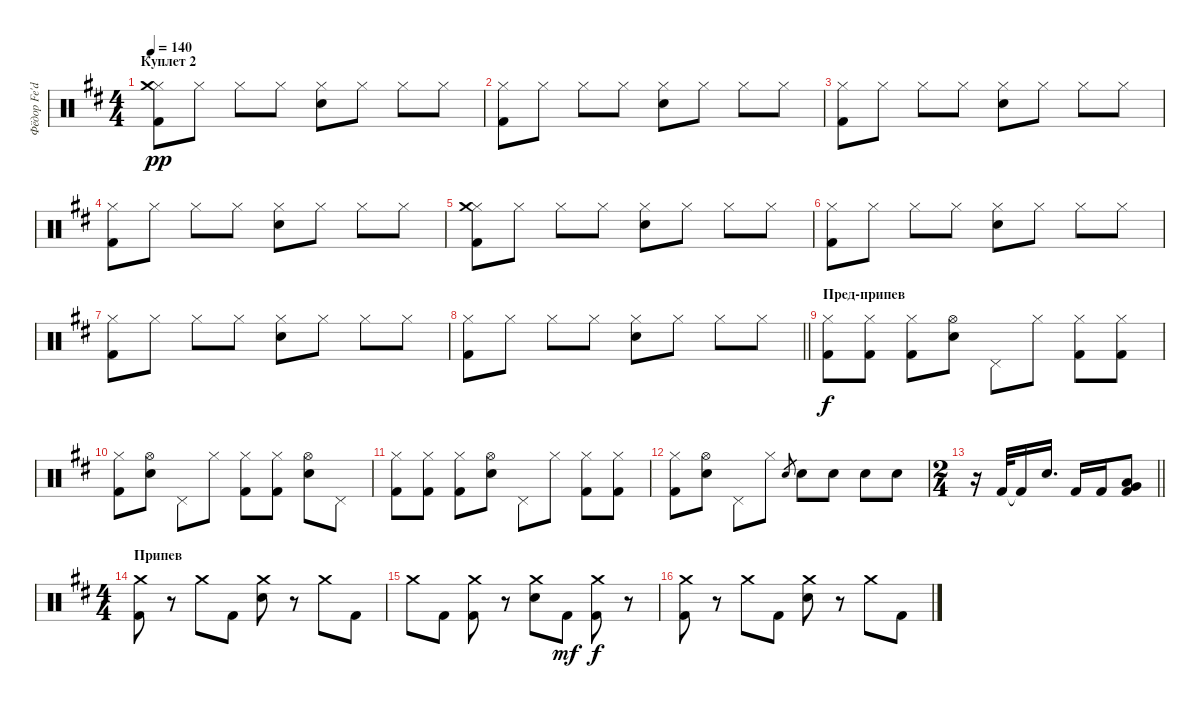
\track ("Фёдор Fe'dor Локшин" "Фёдор Fe'd") {instrument percussion}
\staff {score}
\articulation defaults
\ts (4 4)
\section ("" "Куплет 2")
\tempo 140
\clef neutral
\ks bminor
("Hi-Hat (closed)" "Crash medium (hit)" "Kick (hit) 2").8{dy pp} "Hi-Hat (closed)".8 "Hi-Hat (closed)".8 "Hi-Hat (closed)".8 ("Hi-Hat (closed)" "Snare (hit) 2").8 "Hi-Hat (closed)".8 "Hi-Hat (closed)".8 "Hi-Hat (closed)".8 |
("Hi-Hat (closed)" "Kick (hit) 2").8 "Hi-Hat (closed)".8 "Hi-Hat (closed)".8 "Hi-Hat (closed)".8 ("Hi-Hat (closed)" "Snare (hit) 2").8 "Hi-Hat (closed)".8 "Hi-Hat (closed)".8 "Hi-Hat (closed)".8 |
("Hi-Hat (closed)" "Kick (hit) 2").8 "Hi-Hat (closed)".8 "Hi-Hat (closed)".8 "Hi-Hat (closed)".8 ("Hi-Hat (closed)" "Snare (hit) 2").8 "Hi-Hat (closed)".8 "Hi-Hat (closed)".8 "Hi-Hat (closed)".8 |
("Hi-Hat (closed)" "Kick (hit) 2").8 "Hi-Hat (closed)".8 "Hi-Hat (closed)".8 "Hi-Hat (closed)".8 ("Hi-Hat (closed)" "Snare (hit) 2").8 "Hi-Hat (closed)".8 "Hi-Hat (closed)".8 "Hi-Hat (closed)".8 |
("Hi-Hat (closed)" "Crash medium (hit)" "Kick (hit) 2").8 "Hi-Hat (closed)".8 "Hi-Hat (closed)".8 "Hi-Hat (closed)".8 ("Hi-Hat (closed)" "Snare (hit) 2").8 "Hi-Hat (closed)".8 "Hi-Hat (closed)".8 "Hi-Hat (closed)".8 |
("Hi-Hat (closed)" "Kick (hit) 2").8 "Hi-Hat (closed)".8 "Hi-Hat (closed)".8 "Hi-Hat (closed)".8 ("Hi-Hat (closed)" "Snare (hit) 2").8 "Hi-Hat (closed)".8 "Hi-Hat (closed)".8 "Hi-Hat (closed)".8 |
("Hi-Hat (closed)" "Kick (hit) 2").8 "Hi-Hat (closed)".8 "Hi-Hat (closed)".8 "Hi-Hat (closed)".8 ("Hi-Hat (closed)" "Snare (hit) 2").8 "Hi-Hat (closed)".8 "Hi-Hat (closed)".8 "Hi-Hat (closed)".8 |
\barLineRight lightlight
("Hi-Hat (closed)" "Kick (hit) 2").8 "Hi-Hat (closed)".8 "Hi-Hat (closed)".8 "Hi-Hat (closed)".8 ("Hi-Hat (closed)" "Snare (hit) 2").8 "Hi-Hat (closed)".8 "Hi-Hat (closed)".8 "Hi-Hat (closed)".8 |
\section ("" "Пред-припев")
("Hi-Hat (closed)" "Kick (hit) 2").8{dy f} ("Hi-Hat (closed)" "Kick (hit) 2").8 ("Hi-Hat (closed)" "Kick (hit) 2").8 ("Hi-Hat (open)" "Snare (hit) 2").8 "Pedal Hi-Hat (hit)".8 "Hi-Hat (closed)".8 ("Hi-Hat (closed)" "Kick (hit) 2").8 ("Hi-Hat (closed)" "Kick (hit) 2").8 |
("Hi-Hat (closed)" "Kick (hit) 2").8 ("Hi-Hat (open)" "Snare (hit) 2").8 "Pedal Hi-Hat (hit)".8 "Hi-Hat (closed)".8 ("Hi-Hat (closed)" "Kick (hit) 2").8 ("Hi-Hat (closed)" "Kick (hit) 2").8 ("Hi-Hat (open)" "Snare (hit) 2").8 "Pedal Hi-Hat (hit)".8 |
("Hi-Hat (closed)" "Kick (hit) 2").8 ("Hi-Hat (closed)" "Kick (hit) 2").8 ("Hi-Hat (closed)" "Kick (hit) 2").8 ("Hi-Hat (open)" "Snare (hit) 2").8 "Pedal Hi-Hat (hit)".8 "Hi-Hat (closed)".8 ("Hi-Hat (closed)" "Kick (hit) 2").8 ("Hi-Hat (closed)" "Kick (hit) 2").8 |
("Hi-Hat (closed)" "Kick (hit) 2").8 ("Hi-Hat (open)" "Snare (hit) 2").8 "Pedal Hi-Hat (hit)".8 "Hi-Hat (closed)".8 "Snare (hit) 2".8{gr} "Snare (hit) 2".8 "Snare (hit) 2".8 "Snare (hit) 2".8 "Snare (hit) 2".8 |
\ts (2 4)
\barLineRight lightlight
r.16 "Kick (hit) 2".32 "Kick (hit) 2"{t}.16 "Snare (hit) 2".16{d} "Kick (hit) 2".16 "Kick (hit) 2".16 ("Very Low Tom (hit)" "Low Floor Tom (hit)" "Kick (hit) 2").8 |
\ts (4 4)
\section ("" "Припев")
("Crash medium (hit)" "Kick (hit) 2").8 r.8 "Crash medium (hit)".8 "Kick (hit) 2".8 ("Crash medium (hit)" "Snare (hit) 2").8 r.8 "Crash medium (hit)".8 "Kick (hit) 2".8 |
"Crash medium (hit)".8 "Kick (hit) 2".8 ("Crash medium (hit)" "Kick (hit) 2").8 r.8 ("Crash medium (hit)" "Snare (hit) 2").8 "Kick (hit) 2".8{dy mf} ("Crash medium (hit)" "Kick (hit) 2").8{dy f} r.8 |
("Crash medium (hit)" "Kick (hit) 2").8 r.8 "Crash medium (hit)".8 "Kick (hit) 2".8 ("Crash medium (hit)" "Snare (hit) 2").8 r.8 "Crash medium (hit)".8 "Kick (hit) 2".8
